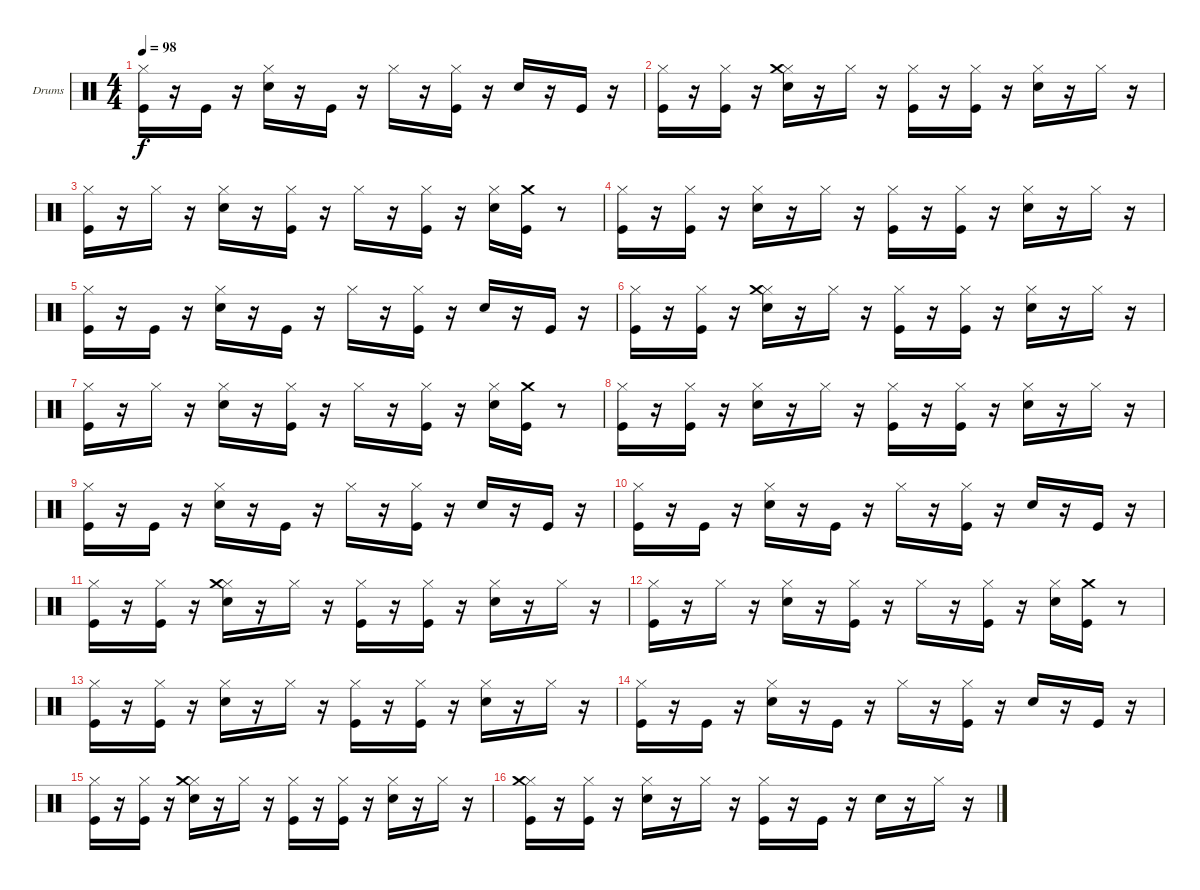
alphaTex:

\bracketExtendMode groupsimilarinstruments
\firstSystemTrackNameOrientation horizontal
\otherSystemsTrackNameOrientation horizontal
\track ("Drumkit" "Drums") {instrument percussion}
\staff {score}
\articulation defaults
\ts (4 4)
\tempo 98
\clef neutral
\ks c
("Kick (hit)" "Hi-Hat (closed)").16{dy f} r.16 "Kick (hit)".16 r.16 ("Snare (hit) 2" "Hi-Hat (closed)").16 r.16 "Kick (hit)".16 r.16 "Hi-Hat (closed)".16 r.16 ("Kick (hit)" "Hi-Hat (closed)").16 r.16 "Snare (hit) 2".16 r.16 "Kick (hit)".16 r.16 |
("Kick (hit)" "Hi-Hat (closed)").16 r.16 ("Kick (hit)" "Hi-Hat (closed)").16 r.16 ("Snare (hit) 2" "Hi-Hat (closed)" "Crash medium (hit)").16 r.16 "Hi-Hat (closed)".16 r.16 ("Kick (hit)" "Hi-Hat (closed)").16 r.16 ("Kick (hit)" "Hi-Hat (closed)").16 r.16 ("Snare (hit) 2" "Hi-Hat (closed)").16 r.16 "Hi-Hat (closed)".16 r.16 |
("Kick (hit)" "Hi-Hat (closed)").16 r.16 "Hi-Hat (closed)".16 r.16 ("Snare (hit) 2" "Hi-Hat (closed)").16 r.16 ("Kick (hit)" "Hi-Hat (closed)").16 r.16 "Hi-Hat (closed)".16 r.16 ("Kick (hit)" "Hi-Hat (closed)").16 r.16 ("Snare (hit) 2" "Hi-Hat (closed)").16 ("Kick (hit)" "Crash medium (hit)").16 r.8 |
("Kick (hit)" "Hi-Hat (closed)").16 r.16 ("Kick (hit)" "Hi-Hat (closed)").16 r.16 ("Snare (hit) 2" "Hi-Hat (closed)").16 r.16 "Hi-Hat (closed)".16 r.16 ("Kick (hit)" "Hi-Hat (closed)").16 r.16 ("Kick (hit)" "Hi-Hat (closed)").16 r.16 ("Snare (hit) 2" "Hi-Hat (closed)").16 r.16 "Hi-Hat (closed)".16 r.16 |
("Kick (hit)" "Hi-Hat (closed)").16 r.16 "Kick (hit)".16 r.16 ("Snare (hit) 2" "Hi-Hat (closed)").16 r.16 "Kick (hit)".16 r.16 "Hi-Hat (closed)".16 r.16 ("Kick (hit)" "Hi-Hat (closed)").16 r.16 "Snare (hit) 2".16 r.16 "Kick (hit)".16 r.16 |
("Kick (hit)" "Hi-Hat (closed)").16 r.16 ("Kick (hit)" "Hi-Hat (closed)").16 r.16 ("Snare (hit) 2" "Hi-Hat (closed)" "Crash medium (hit)").16 r.16 "Hi-Hat (closed)".16 r.16 ("Kick (hit)" "Hi-Hat (closed)").16 r.16 ("Kick (hit)" "Hi-Hat (closed)").16 r.16 ("Snare (hit) 2" "Hi-Hat (closed)").16 r.16 "Hi-Hat (closed)".16 r.16 |
("Kick (hit)" "Hi-Hat (closed)").16 r.16 "Hi-Hat (closed)".16 r.16 ("Snare (hit) 2" "Hi-Hat (closed)").16 r.16 ("Kick (hit)" "Hi-Hat (closed)").16 r.16 "Hi-Hat (closed)".16 r.16 ("Kick (hit)" "Hi-Hat (closed)").16 r.16 ("Snare (hit) 2" "Hi-Hat (closed)").16 ("Kick (hit)" "Crash medium (hit)").16 r.8 |
("Kick (hit)" "Hi-Hat (closed)").16 r.16 ("Kick (hit)" "Hi-Hat (closed)").16 r.16 ("Snare (hit) 2" "Hi-Hat (closed)").16 r.16 "Hi-Hat (closed)".16 r.16 ("Kick (hit)" "Hi-Hat (closed)").16 r.16 ("Kick (hit)" "Hi-Hat (closed)").16 r.16 ("Snare (hit) 2" "Hi-Hat (closed)").16 r.16 "Hi-Hat (closed)".16 r.16 |
("Kick (hit)" "Hi-Hat (closed)").16 r.16 "Kick (hit)".16 r.16 ("Snare (hit) 2" "Hi-Hat (closed)").16 r.16 "Kick (hit)".16 r.16 "Hi-Hat (closed)".16 r.16 ("Kick (hit)" "Hi-Hat (closed)").16 r.16 "Snare (hit) 2".16 r.16 "Kick (hit)".16 r.16 |
("Kick (hit)" "Hi-Hat (closed)").16 r.16 "Kick (hit)".16 r.16 ("Snare (hit) 2" "Hi-Hat (closed)").16 r.16 "Kick (hit)".16 r.16 "Hi-Hat (closed)".16 r.16 ("Kick (hit)" "Hi-Hat (closed)").16 r.16 "Snare (hit) 2".16 r.16 "Kick (hit)".16 r.16 |
("Kick (hit)" "Hi-Hat (closed)").16 r.16 ("Kick (hit)" "Hi-Hat (closed)").16 r.16 ("Snare (hit) 2" "Hi-Hat (closed)" "Crash medium (hit)").16 r.16 "Hi-Hat (closed)".16 r.16 ("Kick (hit)" "Hi-Hat (closed)").16 r.16 ("Kick (hit)" "Hi-Hat (closed)").16 r.16 ("Snare (hit) 2" "Hi-Hat (closed)").16 r.16 "Hi-Hat (closed)".16 r.16 |
("Kick (hit)" "Hi-Hat (closed)").16 r.16 "Hi-Hat (closed)".16 r.16 ("Snare (hit) 2" "Hi-Hat (closed)").16 r.16 ("Kick (hit)" "Hi-Hat (closed)").16 r.16 "Hi-Hat (closed)".16 r.16 ("Kick (hit)" "Hi-Hat (closed)").16 r.16 ("Snare (hit) 2" "Hi-Hat (closed)").16 ("Kick (hit)" "Crash medium (hit)").16 r.8 |
("Kick (hit)" "Hi-Hat (closed)").16 r.16 ("Kick (hit)" "Hi-Hat (closed)").16 r.16 ("Snare (hit) 2" "Hi-Hat (closed)").16 r.16 "Hi-Hat (closed)".16 r.16 ("Kick (hit)" "Hi-Hat (closed)").16 r.16 ("Kick (hit)" "Hi-Hat (closed)").16 r.16 ("Snare (hit) 2" "Hi-Hat (closed)").16 r.16 "Hi-Hat (closed)".16 r.16 |
("Kick (hit)" "Hi-Hat (closed)").16 r.16 "Kick (hit)".16 r.16 ("Snare (hit) 2" "Hi-Hat (closed)").16 r.16 "Kick (hit)".16 r.16 "Hi-Hat (closed)".16 r.16 ("Kick (hit)" "Hi-Hat (closed)").16 r.16 "Snare (hit) 2".16 r.16 "Kick (hit)".16 r.16 |
("Kick (hit)" "Hi-Hat (closed)").16 r.16 ("Kick (hit)" "Hi-Hat (closed)").16 r.16 ("Snare (hit) 2" "Hi-Hat (closed)" "Crash medium (hit)").16 r.16 "Hi-Hat (closed)".16 r.16 ("Kick (hit)" "Hi-Hat (closed)").16 r.16 ("Kick (hit)" "Hi-Hat (closed)").16 r.16 ("Snare (hit) 2" "Hi-Hat (closed)").16 r.16 "Hi-Hat (closed)".16 r.16 |
("Kick (hit)" "Hi-Hat (closed)" "Crash medium (hit)").16 r.16 ("Kick (hit)" "Hi-Hat (closed)").16 r.16 ("Snare (hit) 2" "Hi-Hat (closed)").16 r.16 "Hi-Hat (closed)".16 r.16 ("Kick (hit)" "Hi-Hat (closed)").16 r.16 "Kick (hit)".16 r.16 "Snare (hit) 2".16 r.16 "Hi-Hat (closed)".16 r.16
